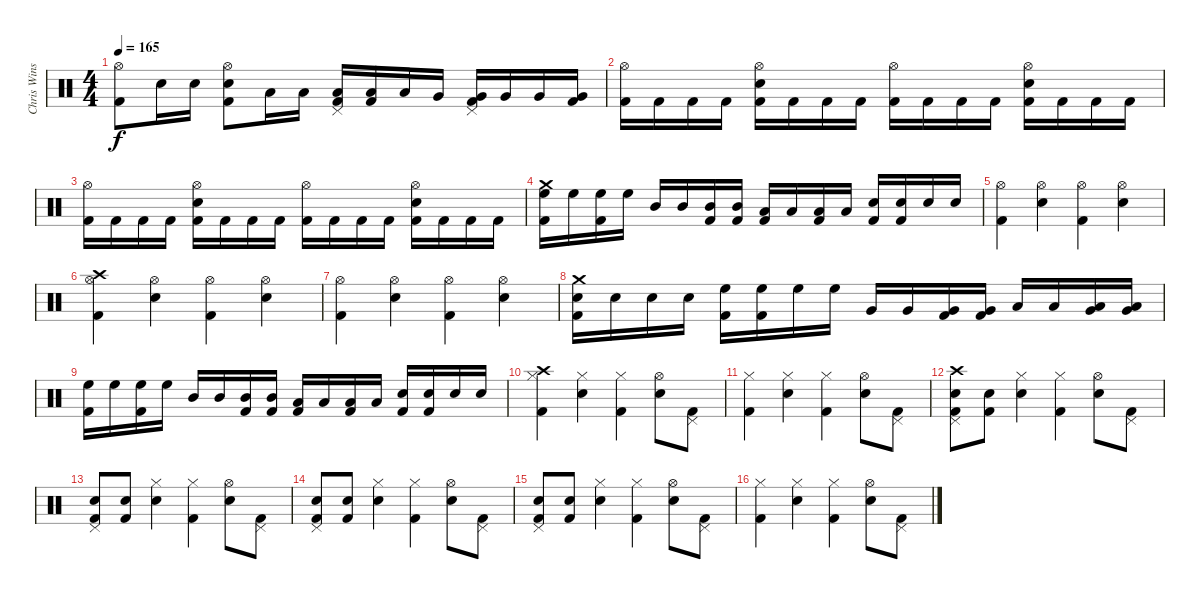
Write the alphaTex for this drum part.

\track ("Chris Winship (Bass)" "Chris Wins") {instrument percussion}
\staff {score}
\articulation defaults
\ts (4 4)
\tempo 165
\clef neutral
\ks c
("Hi-Hat (open)" "Kick (hit) 2").8{dy f} "Electric Snare (hit)".16 "Electric Snare (hit)".16 ("Hi-Hat (open)" "Electric Snare (hit)" "Kick (hit) 2").8 "Low Floor Tom (hit)".16 "Low Floor Tom (hit)".16 ("Pedal Hi-Hat (hit)" "Low Tom (hit)" "Kick (hit) 2").16 ("Low Tom (hit)" "Kick (hit) 2").16 "Low Tom (hit)".16 "Very Low Tom (hit)".16 ("Pedal Hi-Hat (hit)" "Very Low Tom (hit)" "Kick (hit) 2").16 "Very Low Tom (hit)".16 "Very Low Tom (hit)".16 ("Very Low Tom (hit)" "Kick (hit) 2").16 |
("Hi-Hat (open)" "Kick (hit) 2").16 "Kick (hit) 2".16 "Kick (hit) 2".16 "Kick (hit) 2".16 ("Hi-Hat (open)" "Snare (hit) 2" "Kick (hit) 2").16 "Kick (hit) 2".16 "Kick (hit) 2".16 "Kick (hit) 2".16 ("Hi-Hat (open)" "Kick (hit) 2").16 "Kick (hit) 2".16 "Kick (hit) 2".16 "Kick (hit) 2".16 ("Hi-Hat (open)" "Snare (hit) 2" "Kick (hit) 2").16 "Kick (hit) 2".16 "Kick (hit) 2".16 "Kick (hit) 2".16 |
("Hi-Hat (open)" "Kick (hit) 2").16 "Kick (hit) 2".16 "Kick (hit) 2".16 "Kick (hit) 2".16 ("Hi-Hat (open)" "Snare (hit) 2" "Kick (hit) 2").16 "Kick (hit) 2".16 "Kick (hit) 2".16 "Kick (hit) 2".16 ("Hi-Hat (open)" "Kick (hit) 2").16 "Kick (hit) 2".16 "Kick (hit) 2".16 "Kick (hit) 2".16 ("Hi-Hat (open)" "Snare (hit) 2" "Kick (hit) 2").16 "Kick (hit) 2".16 "Kick (hit) 2".16 "Kick (hit) 2".16 |
("Crash medium (hit)" "High Floor Tom (hit)" "Kick (hit) 2").16 "High Floor Tom (hit)".16 ("High Floor Tom (hit)" "Kick (hit) 2").16 "High Floor Tom (hit)".16 "Mid Tom (hit)".16 "Mid Tom (hit)".16 ("Mid Tom (hit)" "Kick (hit) 2").16 ("Mid Tom (hit)" "Kick (hit) 2").16 ("Low Tom (hit)" "Kick (hit) 2").16 "Low Tom (hit)".16 ("Low Tom (hit)" "Kick (hit) 2").16 "Low Tom (hit)".16 ("Snare (hit) 2" "Kick (hit) 2").16 ("Snare (hit) 2" "Kick (hit) 2").16 "Snare (hit) 2".16 "Snare (hit) 2".16 |
("Hi-Hat (open)" "Kick (hit) 2").4 ("Hi-Hat (open)" "Snare (hit) 2").4 ("Hi-Hat (open)" "Kick (hit) 2").4 ("Hi-Hat (open)" "Snare (hit) 2").4 |
("Crash high (hit)" "Hi-Hat (open)" "Kick (hit) 2").4 ("Hi-Hat (open)" "Snare (hit) 2").4 ("Hi-Hat (open)" "Kick (hit) 2").4 ("Hi-Hat (open)" "Snare (hit) 2").4 |
("Hi-Hat (open)" "Kick (hit) 2").4 ("Hi-Hat (open)" "Snare (hit) 2").4 ("Hi-Hat (open)" "Kick (hit) 2").4 ("Hi-Hat (open)" "Snare (hit) 2").4 |
("Crash medium (hit)" "Kick (hit) 2" "Snare (hit) 2").16 "Snare (hit) 2".16 "Snare (hit) 2".16 "Snare (hit) 2".16 ("Kick (hit) 2" "High Floor Tom (hit)").16 ("Kick (hit) 2" "High Floor Tom (hit)").16 "High Floor Tom (hit)".16 "High Floor Tom (hit)".16 "Very Low Tom (hit)".16 "Very Low Tom (hit)".16 ("Kick (hit) 2" "Very Low Tom (hit)").16 ("Kick (hit) 2" "Very Low Tom (hit)").16 "Low Floor Tom (hit)".16 "Low Floor Tom (hit)".16 ("Very Low Tom (hit)" "Low Floor Tom (hit)").16 ("Very Low Tom (hit)" "Low Floor Tom (hit)").16 |
("High Floor Tom (hit)" "Kick (hit) 2").16 "High Floor Tom (hit)".16 ("High Floor Tom (hit)" "Kick (hit) 2").16 "High Floor Tom (hit)".16 "Mid Tom (hit)".16 "Mid Tom (hit)".16 ("Mid Tom (hit)" "Kick (hit) 2").16 ("Mid Tom (hit)" "Kick (hit) 2").16 ("Low Tom (hit)" "Kick (hit) 2").16 "Low Tom (hit)".16 ("Low Tom (hit)" "Kick (hit) 2").16 "Low Tom (hit)".16 ("Snare (hit) 2" "Kick (hit) 2").16 ("Snare (hit) 2" "Kick (hit) 2").16 "Snare (hit) 2".16 "Snare (hit) 2".16 |
("Crash high (hit)" "Hi-Hat (closed)" "Kick (hit) 2").4 ("Hi-Hat (closed)" "Snare (hit) 2").4 ("Hi-Hat (closed)" "Kick (hit) 2").4 ("Hi-Hat (open)" "Snare (hit) 2").8 ("Pedal Hi-Hat (hit)" "Kick (hit) 2").8 |
("Hi-Hat (closed)" "Kick (hit) 2").4 ("Hi-Hat (closed)" "Snare (hit) 2").4 ("Hi-Hat (closed)" "Kick (hit) 2").4 ("Hi-Hat (open)" "Snare (hit) 2").8 ("Pedal Hi-Hat (hit)" "Kick (hit) 2").8 |
("Crash high (hit)" "Pedal Hi-Hat (hit)" "Kick (hit) 2" "Snare (hit) 2").8 ("Snare (hit) 2" "Kick (hit) 2").8 ("Hi-Hat (closed)" "Snare (hit) 2").4 ("Hi-Hat (closed)" "Kick (hit) 2").4 ("Hi-Hat (open)" "Snare (hit) 2").8 ("Pedal Hi-Hat (hit)" "Kick (hit) 2").8 |
("Pedal Hi-Hat (hit)" "Kick (hit) 2" "Snare (hit) 2").8 ("Snare (hit) 2" "Kick (hit) 2").8 ("Hi-Hat (closed)" "Snare (hit) 2").4 ("Hi-Hat (closed)" "Kick (hit) 2").4 ("Hi-Hat (open)" "Snare (hit) 2").8 ("Pedal Hi-Hat (hit)" "Kick (hit) 2").8 |
("Pedal Hi-Hat (hit)" "Kick (hit) 2" "Snare (hit) 2").8 ("Snare (hit) 2" "Kick (hit) 2").8 ("Hi-Hat (closed)" "Snare (hit) 2").4 ("Hi-Hat (closed)" "Kick (hit) 2").4 ("Hi-Hat (open)" "Snare (hit) 2").8 ("Pedal Hi-Hat (hit)" "Kick (hit) 2").8 |
("Pedal Hi-Hat (hit)" "Kick (hit) 2" "Snare (hit) 2").8 ("Snare (hit) 2" "Kick (hit) 2").8 ("Hi-Hat (closed)" "Snare (hit) 2").4 ("Hi-Hat (closed)" "Kick (hit) 2").4 ("Hi-Hat (open)" "Snare (hit) 2").8 ("Pedal Hi-Hat (hit)" "Kick (hit) 2").8 |
("Hi-Hat (closed)" "Kick (hit) 2").4 ("Hi-Hat (closed)" "Snare (hit) 2").4 ("Hi-Hat (closed)" "Kick (hit) 2").4 ("Hi-Hat (open)" "Snare (hit) 2").8 ("Pedal Hi-Hat (hit)" "Kick (hit) 2").8
